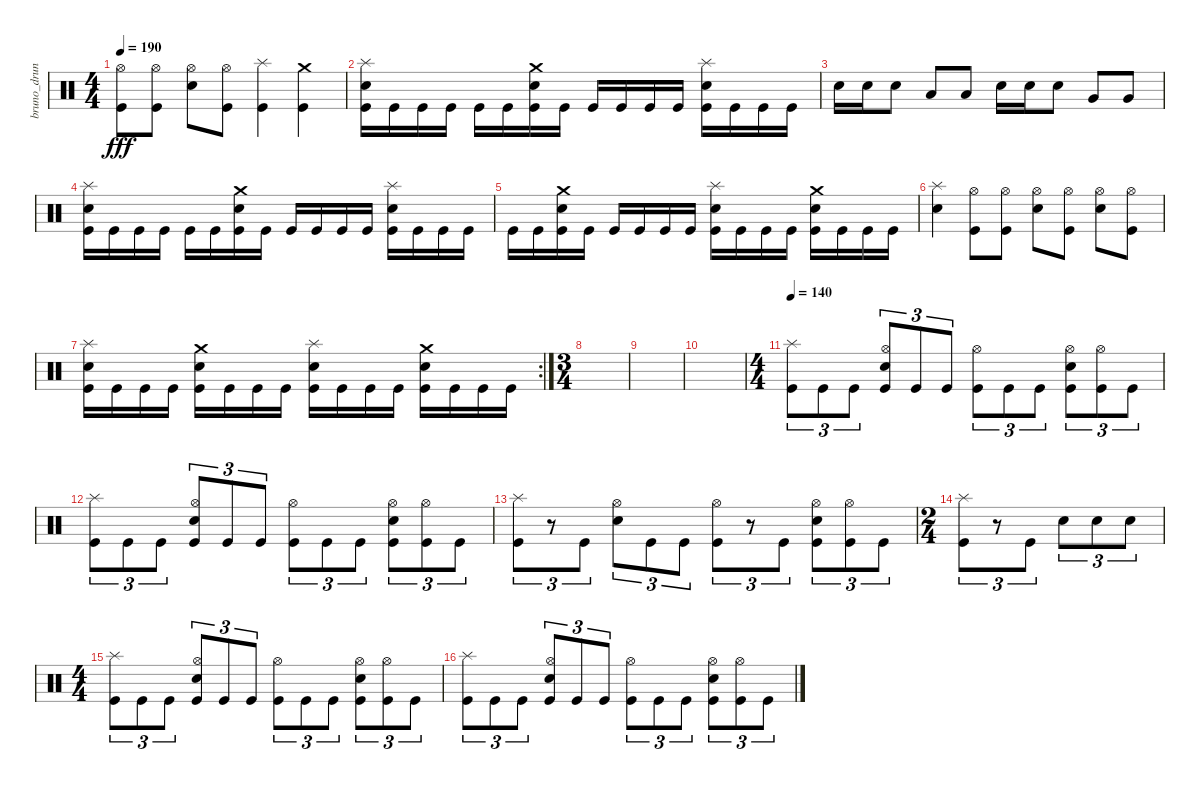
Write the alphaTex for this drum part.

\track ("bruno_druns" "bruno_drun") {instrument percussion}
\staff {score}
\articulation defaults
\ts (4 4)
\tempo 190
\clef neutral
\ks c
("Kick (hit)" "Hi-Hat (open)").8{dy fff} ("Kick (hit)" "Hi-Hat (open)").8 ("Electric Snare (hit)" "Hi-Hat (open)").8 ("Kick (hit)" "Hi-Hat (open)").8 ("Kick (hit)" "Splash (hit)").4 ("Kick (hit)" "Crash medium (hit)").4 |
("Kick (hit)" "Electric Snare (hit)" "Splash (hit)").16 "Kick (hit)".16 "Kick (hit)".16 "Kick (hit)".16 "Kick (hit)".16 "Kick (hit)".16 ("Kick (hit)" "Electric Snare (hit)" "Crash medium (hit)").16 "Kick (hit)".16 "Kick (hit)".16 "Kick (hit)".16 "Kick (hit)".16 "Kick (hit)".16 ("Kick (hit)" "Electric Snare (hit)" "Splash (hit)").16 "Kick (hit)".16 "Kick (hit)".16 "Kick (hit)".16 |
"Electric Snare (hit)".16 "Electric Snare (hit)".16 "Electric Snare (hit)".8 "Low Tom (hit)".8 "Low Tom (hit)".8 "Electric Snare (hit)".16 "Electric Snare (hit)".16 "Electric Snare (hit)".8 "Very Low Tom (hit)".8 "Very Low Tom (hit)".8 |
("Kick (hit)" "Electric Snare (hit)" "Splash (hit)").16 "Kick (hit)".16 "Kick (hit)".16 "Kick (hit)".16 "Kick (hit)".16 "Kick (hit)".16 ("Kick (hit)" "Electric Snare (hit)" "Crash medium (hit)").16 "Kick (hit)".16 "Kick (hit)".16 "Kick (hit)".16 "Kick (hit)".16 "Kick (hit)".16 ("Kick (hit)" "Electric Snare (hit)" "Splash (hit)").16 "Kick (hit)".16 "Kick (hit)".16 "Kick (hit)".16 |
"Kick (hit)".16 "Kick (hit)".16 ("Kick (hit)" "Electric Snare (hit)" "Crash medium (hit)").16 "Kick (hit)".16 "Kick (hit)".16 "Kick (hit)".16 "Kick (hit)".16 "Kick (hit)".16 ("Kick (hit)" "Electric Snare (hit)" "Splash (hit)").16 "Kick (hit)".16 "Kick (hit)".16 "Kick (hit)".16 ("Kick (hit)" "Electric Snare (hit)" "Crash medium (hit)").16 "Kick (hit)".16 "Kick (hit)".16 "Kick (hit)".16 |
("Electric Snare (hit)" "Splash (hit)").4 ("Kick (hit)" "Hi-Hat (open)").8 ("Kick (hit)" "Hi-Hat (open)").8 ("Electric Snare (hit)" "Hi-Hat (open)").8 ("Kick (hit)" "Hi-Hat (open)").8 ("Electric Snare (hit)" "Hi-Hat (open)").8 ("Kick (hit)" "Hi-Hat (open)").8 |
\rc 2
("Kick (hit)" "Electric Snare (hit)" "Splash (hit)").16 "Kick (hit)".16 "Kick (hit)".16 "Kick (hit)".16 ("Kick (hit)" "Electric Snare (hit)" "Crash medium (hit)").16 "Kick (hit)".16 "Kick (hit)".16 "Kick (hit)".16 ("Kick (hit)" "Electric Snare (hit)" "Splash (hit)").16 "Kick (hit)".16 "Kick (hit)".16 "Kick (hit)".16 ("Kick (hit)" "Electric Snare (hit)" "Crash medium (hit)").16 "Kick (hit)".16 "Kick (hit)".16 "Kick (hit)".16 |
\ts (3 4)
|
|
|
\ts (4 4)
\tempo 140
("Kick (hit)" "Splash (hit)").8{tu (3 2)} "Kick (hit)".8{tu (3 2)} "Kick (hit)".8{tu (3 2)} ("Kick (hit)" "Electric Snare (hit)" "Hi-Hat (open)").8{tu (3 2)} "Kick (hit)".8{tu (3 2)} "Kick (hit)".8{tu (3 2)} ("Kick (hit)" "Hi-Hat (open)").8{tu (3 2)} "Kick (hit)".8{tu (3 2)} "Kick (hit)".8{tu (3 2)} ("Kick (hit)" "Electric Snare (hit)" "Hi-Hat (open)").8{tu (3 2)} ("Kick (hit)" "Hi-Hat (open)").8{tu (3 2)} "Kick (hit)".8{tu (3 2)} |
("Kick (hit)" "Splash (hit)").8{tu (3 2)} "Kick (hit)".8{tu (3 2)} "Kick (hit)".8{tu (3 2)} ("Kick (hit)" "Electric Snare (hit)" "Hi-Hat (open)").8{tu (3 2)} "Kick (hit)".8{tu (3 2)} "Kick (hit)".8{tu (3 2)} ("Kick (hit)" "Hi-Hat (open)").8{tu (3 2)} "Kick (hit)".8{tu (3 2)} "Kick (hit)".8{tu (3 2)} ("Kick (hit)" "Electric Snare (hit)" "Hi-Hat (open)").8{tu (3 2)} ("Kick (hit)" "Hi-Hat (open)").8{tu (3 2)} "Kick (hit)".8{tu (3 2)} |
("Kick (hit)" "Splash (hit)").8{tu (3 2)} r.8{tu (3 2)} "Kick (hit)".8{tu (3 2)} ("Electric Snare (hit)" "Hi-Hat (open)").8{tu (3 2)} "Kick (hit)".8{tu (3 2)} "Kick (hit)".8{tu (3 2)} ("Kick (hit)" "Hi-Hat (open)").8{tu (3 2)} r.8{tu (3 2)} "Kick (hit)".8{tu (3 2)} ("Kick (hit)" "Electric Snare (hit)" "Hi-Hat (open)").8{tu (3 2)} ("Kick (hit)" "Hi-Hat (open)").8{tu (3 2)} "Kick (hit)".8{tu (3 2)} |
\ts (2 4)
("Kick (hit)" "Splash (hit)").8{tu (3 2)} r.8{tu (3 2)} "Kick (hit)".8{tu (3 2)} "Electric Snare (hit)".8{tu (3 2)} "Electric Snare (hit)".8{tu (3 2)} "Electric Snare (hit)".8{tu (3 2)} |
\ts (4 4)
("Kick (hit)" "Splash (hit)").8{tu (3 2)} "Kick (hit)".8{tu (3 2)} "Kick (hit)".8{tu (3 2)} ("Kick (hit)" "Electric Snare (hit)" "Hi-Hat (open)").8{tu (3 2)} "Kick (hit)".8{tu (3 2)} "Kick (hit)".8{tu (3 2)} ("Kick (hit)" "Hi-Hat (open)").8{tu (3 2)} "Kick (hit)".8{tu (3 2)} "Kick (hit)".8{tu (3 2)} ("Kick (hit)" "Electric Snare (hit)" "Hi-Hat (open)").8{tu (3 2)} ("Kick (hit)" "Hi-Hat (open)").8{tu (3 2)} "Kick (hit)".8{tu (3 2)} |
("Kick (hit)" "Splash (hit)").8{tu (3 2)} "Kick (hit)".8{tu (3 2)} "Kick (hit)".8{tu (3 2)} ("Kick (hit)" "Electric Snare (hit)" "Hi-Hat (open)").8{tu (3 2)} "Kick (hit)".8{tu (3 2)} "Kick (hit)".8{tu (3 2)} ("Kick (hit)" "Hi-Hat (open)").8{tu (3 2)} "Kick (hit)".8{tu (3 2)} "Kick (hit)".8{tu (3 2)} ("Kick (hit)" "Electric Snare (hit)" "Hi-Hat (open)").8{tu (3 2)} ("Kick (hit)" "Hi-Hat (open)").8{tu (3 2)} "Kick (hit)".8{tu (3 2)}
